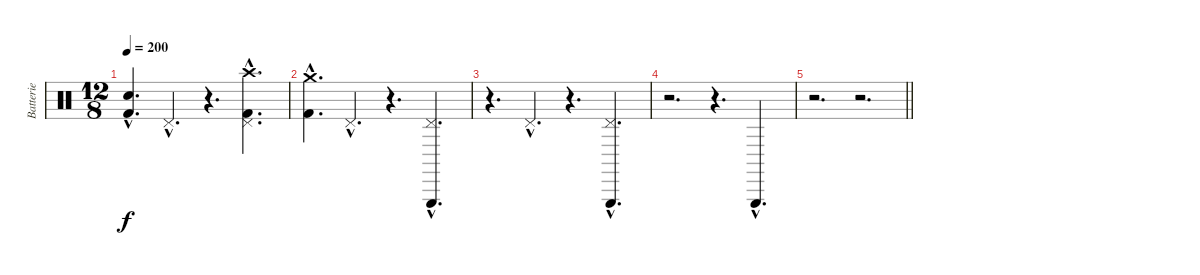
\track ("Batterie" "Batterie") {instrument percussion}
\staff {score}
\articulation defaults
\ts (12 8)
\tempo 200
\clef neutral
\ks c
("Metronome (bell)"{hac} "Kick (hit) 2"{hac}).4{d dy f} "Pedal Hi-Hat (hit)"{hac}.4{d} r.4{d} ("Crash high (hit)"{hac} "Pedal Hi-Hat (hit)"{hac} "Kick (hit) 2"{hac}).4{d} |
("Crash medium (hit)"{hac} "Kick (hit) 2"{hac}).4{d} "Pedal Hi-Hat (hit)"{hac}.4{d} r.4{d} ("Pedal Hi-Hat (hit)"{hac} "Triangle (hit)"{hac}).4{d} |
r.4{d} "Pedal Hi-Hat (hit)"{hac}.4{d} r.4{d} ("Pedal Hi-Hat (hit)"{hac} "Triangle (hit)"{hac}).4{d} |
r.2{d} r.4{d} "Triangle (hit)"{hac}.4{d} |
\barLineRight lightlight
r.2{d} r.2{d}
